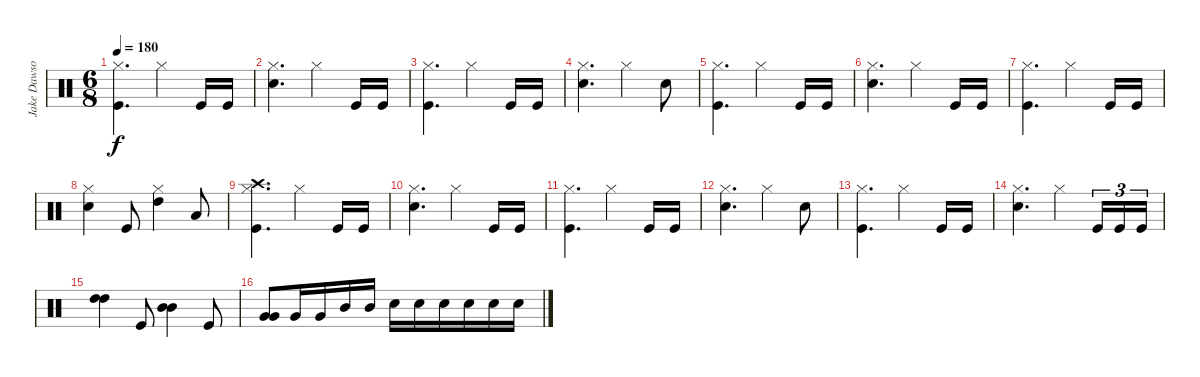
\track ("Jake Dawson" "Jake Dawso") {instrument percussion}
\staff {score}
\articulation defaults
\ts (6 8)
\tempo 180
\clef neutral
\ks c
("Hi-Hat (closed)" "Kick (hit)").4{d dy f} "Hi-Hat (closed)".4 "Kick (hit)".16 "Kick (hit)".16 |
("Hi-Hat (closed)" "Snare (hit) 2").4{d} "Hi-Hat (closed)".4 "Kick (hit)".16 "Kick (hit)".16 |
("Hi-Hat (closed)" "Kick (hit)").4{d} "Hi-Hat (closed)".4 "Kick (hit)".16 "Kick (hit)".16 |
("Hi-Hat (closed)" "Snare (hit) 2").4{d} "Hi-Hat (closed)".4 "Snare (hit) 2".8 |
("Hi-Hat (closed)" "Kick (hit)").4{d} "Hi-Hat (closed)".4 "Kick (hit)".16 "Kick (hit)".16 |
("Hi-Hat (closed)" "Snare (hit) 2").4{d} "Hi-Hat (closed)".4 "Kick (hit)".16 "Kick (hit)".16 |
("Hi-Hat (closed)" "Kick (hit)").4{d} "Hi-Hat (closed)".4 "Kick (hit)".16 "Kick (hit)".16 |
("Hi-Hat (closed)" "Snare (hit) 2").4 "Kick (hit)".8 ("Hi-Hat (closed)" "High Tom (hit)").4 "Low Tom (hit)".8 |
("Crash high (hit)" "Hi-Hat (closed)" "Kick (hit)").4{d} "Hi-Hat (closed)".4 "Kick (hit)".16 "Kick (hit)".16 |
("Hi-Hat (closed)" "Snare (hit) 2").4{d} "Hi-Hat (closed)".4 "Kick (hit)".16 "Kick (hit)".16 |
("Hi-Hat (closed)" "Kick (hit)").4{d} "Hi-Hat (closed)".4 "Kick (hit)".16 "Kick (hit)".16 |
("Hi-Hat (closed)" "Snare (hit) 2").4{d} "Hi-Hat (closed)".4 "Snare (hit) 2".8 |
("Hi-Hat (closed)" "Kick (hit)").4{d} "Hi-Hat (closed)".4 "Kick (hit)".16 "Kick (hit)".16 |
("Hi-Hat (closed)" "Snare (hit) 2").4{d} "Hi-Hat (closed)".4 "Kick (hit)".16{tu (3 2)} "Kick (hit)".16{tu (3 2)} "Kick (hit)".16{tu (3 2)} |
("High Tom (hit)" "High Tom (hit)").4 "Kick (hit)".8 ("Mid Tom (hit)" "Mid Tom (hit)").4 "Kick (hit)".8 |
("Very Low Tom (hit)" "Very Low Tom (hit)").8 "Very Low Tom (hit)".16 "Very Low Tom (hit)".16 "Mid Tom (hit)".16 "Mid Tom (hit)".16 "Snare (hit) 2".16 "Snare (hit) 2".16 "Snare (hit) 2".16 "Snare (hit) 2".16 "Snare (hit) 2".16 "Snare (hit) 2".16
